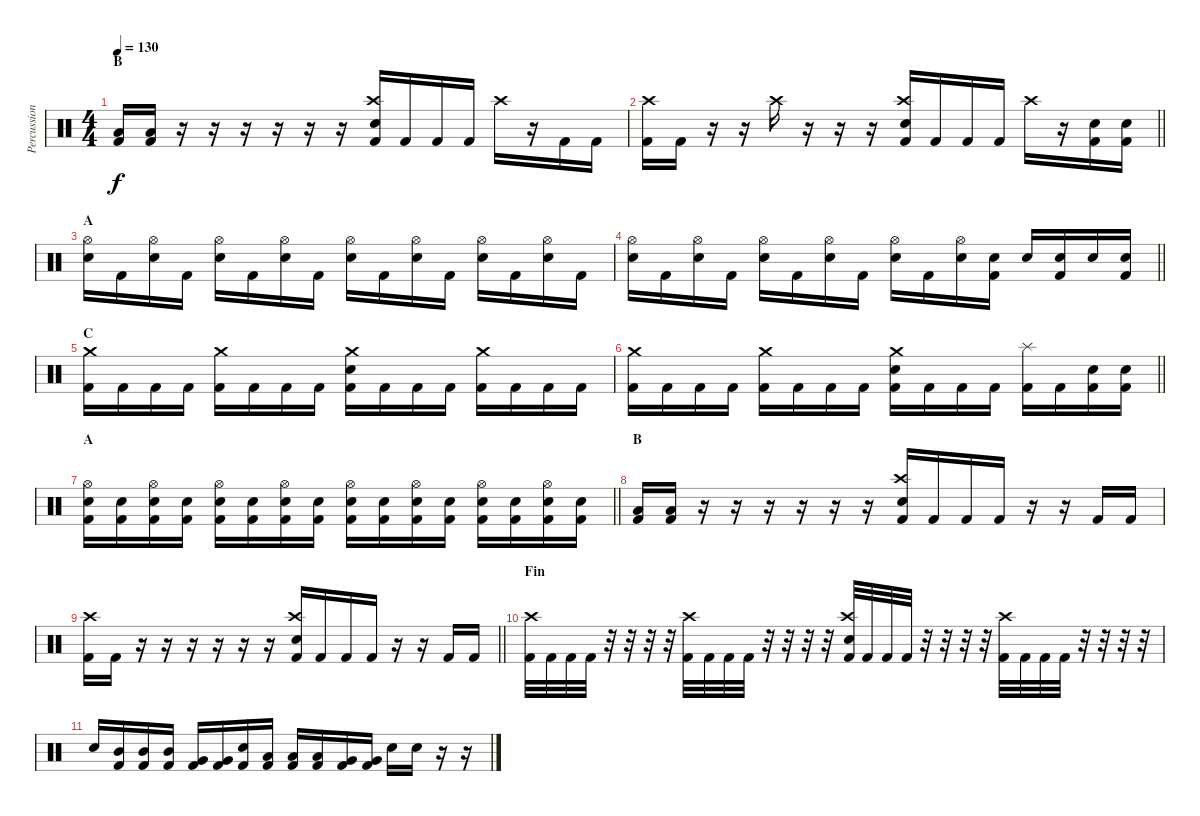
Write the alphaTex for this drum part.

\track ("Percussion" "Percussion") {instrument percussion}
\staff {score}
\articulation defaults
\ts (4 4)
\section ("" "B")
\tempo 130
\clef neutral
\ks c
("Low Floor Tom (hit)" "Kick (hit) 2").16{dy f} ("Low Floor Tom (hit)" "Kick (hit) 2").16 r.16 r.16 r.16 r.16 r.16 r.16 ("Crash high (hit)" "Snare (hit) 2" "Kick (hit) 2").16 "Kick (hit) 2".16 "Kick (hit) 2".16 "Kick (hit) 2".16 "Crash high (hit)".16 r.16 "Kick (hit) 2".16 "Kick (hit) 2".16 |
\barLineRight lightlight
("Crash high (hit)" "Kick (hit) 2").16 "Kick (hit) 2".16 r.16 r.16 "Crash high (hit)".16 r.16 r.16 r.16 ("Crash high (hit)" "Snare (hit) 2" "Kick (hit) 2").16 "Kick (hit) 2".16 "Kick (hit) 2".16 "Kick (hit) 2".16 "Crash high (hit)".16 r.16 ("Snare (hit) 2" "Kick (hit) 2").16 ("Snare (hit) 2" "Kick (hit) 2").16 |
\section ("" "A")
("Hi-Hat (open)" "Snare (hit) 2").16 "Kick (hit) 2".16 ("Hi-Hat (open)" "Snare (hit) 2").16 "Kick (hit) 2".16 ("Hi-Hat (open)" "Snare (hit) 2").16 "Kick (hit) 2".16 ("Hi-Hat (open)" "Snare (hit) 2").16 "Kick (hit) 2".16 ("Hi-Hat (open)" "Snare (hit) 2").16 "Kick (hit) 2".16 ("Hi-Hat (open)" "Snare (hit) 2").16 "Kick (hit) 2".16 ("Hi-Hat (open)" "Snare (hit) 2").16 "Kick (hit) 2".16 ("Hi-Hat (open)" "Snare (hit) 2").16 "Kick (hit) 2".16 |
\barLineRight lightlight
("Hi-Hat (open)" "Snare (hit) 2").16 "Kick (hit) 2".16 ("Hi-Hat (open)" "Snare (hit) 2").16 "Kick (hit) 2".16 ("Hi-Hat (open)" "Snare (hit) 2").16 "Kick (hit) 2".16 ("Hi-Hat (open)" "Snare (hit) 2").16 "Kick (hit) 2".16 ("Hi-Hat (open)" "Snare (hit) 2").16 "Kick (hit) 2".16 ("Hi-Hat (open)" "Snare (hit) 2").16 ("Snare (hit) 2" "Kick (hit) 2").16 "Snare (hit) 2".16 ("Snare (hit) 2" "Kick (hit) 2").16 "Snare (hit) 2".16 ("Snare (hit) 2" "Kick (hit) 2").16 |
\section ("" "C")
("Crash medium (hit)" "Kick (hit) 2").16 "Kick (hit) 2".16 "Kick (hit) 2".16 "Kick (hit) 2".16 ("Crash medium (hit)" "Kick (hit) 2").16 "Kick (hit) 2".16 "Kick (hit) 2".16 "Kick (hit) 2".16 ("Crash medium (hit)" "Snare (hit) 2" "Kick (hit) 2").16 "Kick (hit) 2".16 "Kick (hit) 2".16 "Kick (hit) 2".16 ("Crash medium (hit)" "Kick (hit) 2").16 "Kick (hit) 2".16 "Kick (hit) 2".16 "Kick (hit) 2".16 |
\barLineRight lightlight
("Crash medium (hit)" "Kick (hit) 2").16 "Kick (hit) 2".16 "Kick (hit) 2".16 "Kick (hit) 2".16 ("Crash medium (hit)" "Kick (hit) 2").16 "Kick (hit) 2".16 "Kick (hit) 2".16 "Kick (hit) 2".16 ("Crash medium (hit)" "Snare (hit) 2" "Kick (hit) 2").16 "Kick (hit) 2".16 "Kick (hit) 2".16 "Kick (hit) 2".16 ("Splash (hit)" "Kick (hit) 2").16 "Kick (hit) 2".16 ("Snare (hit) 2" "Kick (hit) 2").16 ("Snare (hit) 2" "Kick (hit) 2").16 |
\section ("" "A")
\barLineRight lightlight
("Hi-Hat (open)" "Snare (hit) 2" "Kick (hit) 2").16 ("Snare (hit) 2" "Kick (hit) 2").16 ("Hi-Hat (open)" "Snare (hit) 2" "Kick (hit) 2").16 ("Snare (hit) 2" "Kick (hit) 2").16 ("Hi-Hat (open)" "Snare (hit) 2" "Kick (hit) 2").16 ("Snare (hit) 2" "Kick (hit) 2").16 ("Hi-Hat (open)" "Snare (hit) 2" "Kick (hit) 2").16 ("Snare (hit) 2" "Kick (hit) 2").16 ("Hi-Hat (open)" "Snare (hit) 2" "Kick (hit) 2").16 ("Snare (hit) 2" "Kick (hit) 2").16 ("Hi-Hat (open)" "Snare (hit) 2" "Kick (hit) 2").16 ("Snare (hit) 2" "Kick (hit) 2").16 ("Hi-Hat (open)" "Snare (hit) 2" "Kick (hit) 2").16 ("Snare (hit) 2" "Kick (hit) 2").16 ("Hi-Hat (open)" "Snare (hit) 2" "Kick (hit) 2").16 ("Snare (hit) 2" "Kick (hit) 2").16 |
\section ("" "B")
("Low Floor Tom (hit)" "Kick (hit) 2").16 ("Low Floor Tom (hit)" "Kick (hit) 2").16 r.16 r.16 r.16 r.16 r.16 r.16 ("Crash high (hit)" "Snare (hit) 2" "Kick (hit) 2").16 "Kick (hit) 2".16 "Kick (hit) 2".16 "Kick (hit) 2".16 r.16 r.16 "Kick (hit) 2".16 "Kick (hit) 2".16 |
\barLineRight lightlight
("Crash high (hit)" "Kick (hit) 2").16 "Kick (hit) 2".16 r.16 r.16 r.16 r.16 r.16 r.16 ("Crash high (hit)" "Snare (hit) 2" "Kick (hit) 2").16 "Kick (hit) 2".16 "Kick (hit) 2".16 "Kick (hit) 2".16 r.16 r.16 "Kick (hit) 2".16 "Kick (hit) 2".16 |
\section ("" "Fin")
("Crash high (hit)" "Kick (hit) 2").32 "Kick (hit) 2".32 "Kick (hit) 2".32 "Kick (hit) 2".32 r.32 r.32 r.32 r.32 ("Crash high (hit)" "Kick (hit) 2").32 "Kick (hit) 2".32 "Kick (hit) 2".32 "Kick (hit) 2".32 r.32 r.32 r.32 r.32 ("Crash high (hit)" "Snare (hit) 2" "Kick (hit) 2").32 "Kick (hit) 2".32 "Kick (hit) 2".32 "Kick (hit) 2".32 r.32 r.32 r.32 r.32 ("Crash high (hit)" "Kick (hit) 2").32 "Kick (hit) 2".32 "Kick (hit) 2".32 "Kick (hit) 2".32 r.32 r.32 r.32 r.32 |
"Snare (hit) 2".16 ("Mid Tom (hit)" "Kick (hit) 2").16 ("Mid Tom (hit)" "Kick (hit) 2").16 ("Mid Tom (hit)" "Kick (hit) 2").16 ("Very Low Tom (hit)" "Kick (hit) 2").16 ("Very Low Tom (hit)" "Kick (hit) 2").16 ("Snare (hit) 2" "Kick (hit) 2").16 ("Low Tom (hit)" "Kick (hit) 2").16 ("Low Tom (hit)" "Kick (hit) 2").16 ("Low Tom (hit)" "Kick (hit) 2").16 ("Very Low Tom (hit)" "Kick (hit) 2").16 ("Very Low Tom (hit)" "Kick (hit) 2").16 "Snare (hit) 2".16 "Snare (hit) 2".16 r.16 r.16
